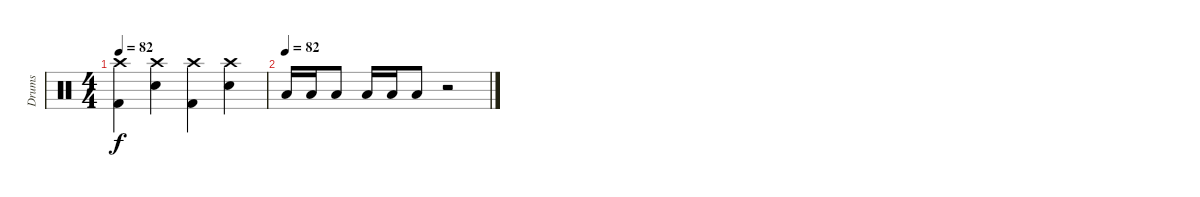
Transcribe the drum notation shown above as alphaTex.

\track ("Drums" "Drums") {instrument percussion}
\staff {score}
\articulation defaults
\ts (4 4)
\tempo 82
\clef neutral
\ks c
("Kick (hit) 2" "Crash high (hit)").4{dy f} ("Snare (hit) 2" "Crash high (hit)").4 ("Kick (hit) 2" "Crash high (hit)").4 ("Snare (hit) 2" "Crash high (hit)").4 |
\tempo (82)
"Low Tom (hit)".16 "Low Tom (hit)".16 "Low Tom (hit)".8 "Low Tom (hit)".16 "Low Tom (hit)".16 "Low Tom (hit)".8 r.2
